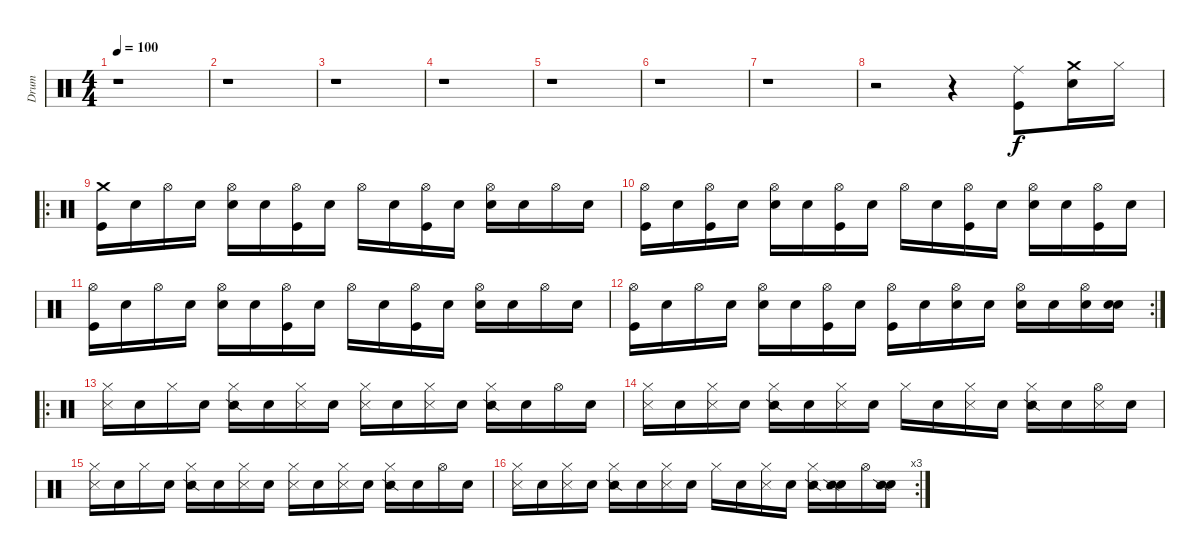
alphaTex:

\track ("Drum" "Drum") {instrument percussion}
\staff {score}
\articulation defaults
\ts (4 4)
\tempo 100
\clef neutral
\ks c
r.1{dy f} |
r.1 |
r.1 |
r.1 |
r.1 |
r.1 |
r.1 |
r.2 r.4 ("Ride (middle)" "Kick (hit)").8 ("Crash medium (hit)" "Electric Snare (hit)").16 "Hi-Hat (closed)".16 |
\ro
("Crash medium (hit)" "Kick (hit)").16 "Snare (hit)".16 "Hi-Hat (open)".16 "Snare (hit)".16 ("Hi-Hat (open)" "Electric Snare (hit)").16 "Snare (hit)".16 ("Hi-Hat (open)" "Kick (hit)").16 "Snare (hit)".16 "Hi-Hat (open)".16 "Snare (hit)".16 ("Hi-Hat (open)" "Kick (hit)").16 "Snare (hit)".16 ("Hi-Hat (open)" "Electric Snare (hit)").16 "Snare (hit)".16 "Hi-Hat (open)".16 "Snare (hit)".16 |
("Hi-Hat (open)" "Kick (hit)").16 "Snare (hit)".16 ("Hi-Hat (open)" "Kick (hit)").16 "Snare (hit)".16 ("Hi-Hat (open)" "Electric Snare (hit)").16 "Snare (hit)".16 ("Hi-Hat (open)" "Kick (hit)").16 "Snare (hit)".16 "Hi-Hat (open)".16 "Snare (hit)".16 ("Hi-Hat (open)" "Kick (hit)").16 "Snare (hit)".16 ("Hi-Hat (open)" "Electric Snare (hit)").16 "Snare (hit)".16 ("Hi-Hat (open)" "Kick (hit)").16 "Snare (hit)".16 |
("Hi-Hat (open)" "Kick (hit)").16 "Snare (hit)".16 "Hi-Hat (open)".16 "Snare (hit)".16 ("Hi-Hat (open)" "Electric Snare (hit)").16 "Snare (hit)".16 ("Hi-Hat (open)" "Kick (hit)").16 "Snare (hit)".16 "Hi-Hat (open)".16 "Snare (hit)".16 ("Hi-Hat (open)" "Kick (hit)").16 "Snare (hit)".16 ("Hi-Hat (open)" "Electric Snare (hit)").16 "Snare (hit)".16 "Hi-Hat (open)".16 "Snare (hit)".16 |
\rc 2
("Hi-Hat (open)" "Kick (hit)").16 "Snare (hit)".16 "Hi-Hat (open)".16 "Snare (hit)".16 ("Hi-Hat (open)" "Electric Snare (hit)").16 "Snare (hit)".16 ("Hi-Hat (open)" "Kick (hit)").16 "Snare (hit)".16 ("Hi-Hat (open)" "Kick (hit)").16 "Snare (hit)".16 ("Hi-Hat (open)" "Electric Snare (hit)").16 "Snare (hit)".16 ("Hi-Hat (open)" "Electric Snare (hit)").16 "Snare (hit)".16 ("Hi-Hat (open)" "Electric Snare (hit)").16 ("Snare (hit)" "Electric Snare (hit)").16 |
\ro
("Hi-Hat (closed)" "Metronome (hit)").16 "Snare (hit)".16 "Hi-Hat (closed)".16 "Snare (hit)".16 ("Hi-Hat (closed)" "Snare (side stick) 2").16 "Snare (hit)".16 ("Hi-Hat (closed)" "Metronome (hit)").16 "Snare (hit)".16 ("Hi-Hat (closed)" "Metronome (hit)").16 "Snare (hit)".16 ("Hi-Hat (closed)" "Metronome (hit)").16 "Snare (hit)".16 ("Hi-Hat (closed)" "Snare (side stick) 2").16 "Snare (hit)".16 "Hi-Hat (open)".16 "Snare (hit)".16 |
("Hi-Hat (closed)" "Metronome (hit)").16 "Snare (hit)".16 ("Hi-Hat (closed)" "Metronome (hit)").16 "Snare (hit)".16 ("Hi-Hat (closed)" "Snare (side stick) 2").16 "Snare (hit)".16 ("Hi-Hat (closed)" "Metronome (hit)").16 "Snare (hit)".16 "Hi-Hat (closed)".16 "Snare (hit)".16 ("Hi-Hat (closed)" "Metronome (hit)").16 "Snare (hit)".16 ("Hi-Hat (closed)" "Snare (side stick) 2").16 "Snare (hit)".16 ("Hi-Hat (open)" "Metronome (hit)").16 "Snare (hit)".16 |
("Hi-Hat (closed)" "Metronome (hit)").16 "Snare (hit)".16 "Hi-Hat (closed)".16 "Snare (hit)".16 ("Hi-Hat (closed)" "Snare (side stick) 2").16 "Snare (hit)".16 ("Hi-Hat (closed)" "Metronome (hit)").16 "Snare (hit)".16 ("Hi-Hat (closed)" "Metronome (hit)").16 "Snare (hit)".16 ("Hi-Hat (closed)" "Metronome (hit)").16 "Snare (hit)".16 ("Hi-Hat (closed)" "Snare (side stick) 2").16 "Snare (hit)".16 "Hi-Hat (open)".16 "Snare (hit)".16 |
\rc 3
("Hi-Hat (closed)" "Metronome (hit)").16 "Snare (hit)".16 ("Hi-Hat (closed)" "Metronome (hit)").16 "Snare (hit)".16 ("Hi-Hat (closed)" "Snare (side stick) 2").16 "Snare (hit)".16 ("Hi-Hat (closed)" "Metronome (hit)").16 "Snare (hit)".16 "Hi-Hat (closed)".16 "Snare (hit)".16 ("Hi-Hat (closed)" "Metronome (hit)").16 "Snare (hit)".16 ("Hi-Hat (closed)" "Snare (side stick) 2").16 ("Snare (hit)" "Snare (side stick) 2").16 "Hi-Hat (open)".16 ("Snare (hit)" "Snare (side stick) 2").16
